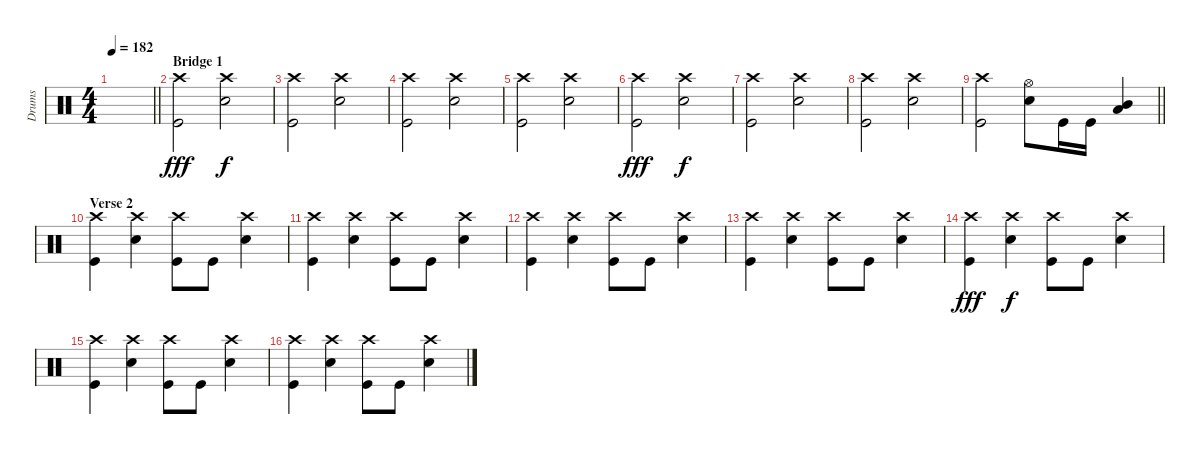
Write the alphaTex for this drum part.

\track ("Drums" "Drums") {instrument percussion}
\staff {score}
\articulation defaults
\ts (4 4)
\tempo 182
\clef neutral
\barLineRight lightlight
\ks c
|
\section ("" "Bridge 1")
("Crash high (hit)" "Kick (hit)").2{dy fff} ("Crash high (hit)" "Electric Snare (hit)").2{dy f} |
("Crash high (hit)" "Kick (hit)").2 ("Crash high (hit)" "Electric Snare (hit)").2 |
("Crash high (hit)" "Kick (hit)").2 ("Crash high (hit)" "Electric Snare (hit)").2 |
("Crash high (hit)" "Kick (hit)").2 ("Crash high (hit)" "Electric Snare (hit)").2 |
("Crash high (hit)" "Kick (hit)").2{dy fff} ("Crash high (hit)" "Electric Snare (hit)").2{dy f} |
("Crash high (hit)" "Kick (hit)").2 ("Crash high (hit)" "Electric Snare (hit)").2 |
("Crash high (hit)" "Kick (hit)").2 ("Crash high (hit)" "Electric Snare (hit)").2 |
\barLineRight lightlight
("Crash high (hit)" "Kick (hit)").2 ("Hi-Hat (open)" "Electric Snare (hit)").8 "Kick (hit)".16 "Kick (hit)".16 ("Mid Tom (hit)" "Low Tom (hit)").4 |
\section ("" "Verse 2")
("Crash high (hit)" "Kick (hit)").4 ("Crash high (hit)" "Electric Snare (hit)").4 ("Crash high (hit)" "Kick (hit)").8 "Kick (hit)".8 ("Crash high (hit)" "Electric Snare (hit)").4 |
("Crash high (hit)" "Kick (hit)").4 ("Crash high (hit)" "Electric Snare (hit)").4 ("Crash high (hit)" "Kick (hit)").8 "Kick (hit)".8 ("Crash high (hit)" "Electric Snare (hit)").4 |
("Crash high (hit)" "Kick (hit)").4 ("Crash high (hit)" "Electric Snare (hit)").4 ("Crash high (hit)" "Kick (hit)").8 "Kick (hit)".8 ("Crash high (hit)" "Electric Snare (hit)").4 |
("Crash high (hit)" "Kick (hit)").4 ("Crash high (hit)" "Electric Snare (hit)").4 ("Crash high (hit)" "Kick (hit)").8 "Kick (hit)".8 ("Crash high (hit)" "Electric Snare (hit)").4 |
("Crash high (hit)" "Kick (hit)").4{dy fff} ("Crash high (hit)" "Electric Snare (hit)").4{dy f} ("Crash high (hit)" "Kick (hit)").8 "Kick (hit)".8 ("Crash high (hit)" "Electric Snare (hit)").4 |
("Crash high (hit)" "Kick (hit)").4 ("Crash high (hit)" "Electric Snare (hit)").4 ("Crash high (hit)" "Kick (hit)").8 "Kick (hit)".8 ("Crash high (hit)" "Electric Snare (hit)").4 |
("Crash high (hit)" "Kick (hit)").4 ("Crash high (hit)" "Electric Snare (hit)").4 ("Crash high (hit)" "Kick (hit)").8 "Kick (hit)".8 ("Crash high (hit)" "Electric Snare (hit)").4
